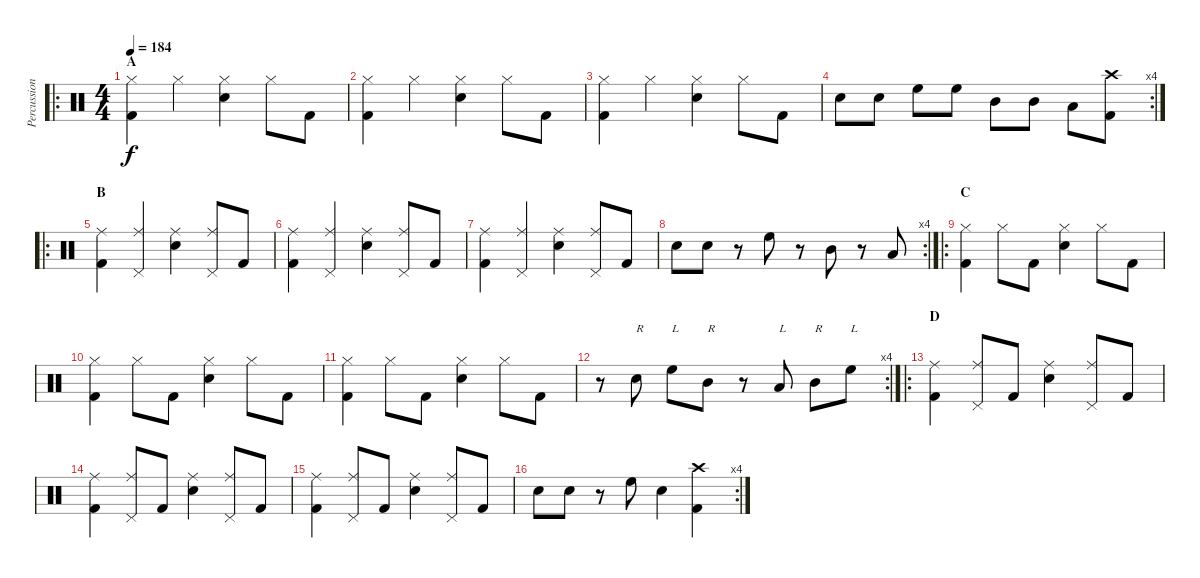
\track ("Percussioni" "Percussion") {instrument percussion}
\staff {score}
\articulation defaults
\ro
\ts (4 4)
\section ("" "A")
\tempo 184
\clef neutral
\ks c
("Hi-Hat (closed)" "Kick (hit) 2").4{dy f} "Hi-Hat (closed)".4 ("Hi-Hat (closed)" "Snare (hit) 2").4 "Hi-Hat (closed)".8 "Kick (hit) 2".8 |
("Hi-Hat (closed)" "Kick (hit) 2").4 "Hi-Hat (closed)".4 ("Hi-Hat (closed)" "Snare (hit) 2").4 "Hi-Hat (closed)".8 "Kick (hit) 2".8 |
("Hi-Hat (closed)" "Kick (hit) 2").4 "Hi-Hat (closed)".4 ("Hi-Hat (closed)" "Snare (hit) 2").4 "Hi-Hat (closed)".8 "Kick (hit) 2".8 |
\rc 4 "Snare (hit) 2".8 "Snare (hit) 2".8 "High Floor Tom (hit)".8 "High Floor Tom (hit)".8 "Mid Tom (hit)".8 "Mid Tom (hit)".8 "Low Floor Tom (hit)".8
("Kick (hit) 2" "Crash high (hit)").8 |
\ro
\section ("" "B")
("Ride (middle)" "Kick (hit) 2").4 ("Ride (middle)" "Pedal Hi-Hat (hit)").4 ("Ride (middle)" "Snare (hit) 2").4 ("Ride (middle)" "Pedal Hi-Hat (hit)").8 "Kick (hit) 2".8 |
("Ride (middle)" "Kick (hit) 2").4 ("Ride (middle)" "Pedal Hi-Hat (hit)").4 ("Ride (middle)" "Snare (hit) 2").4 ("Ride (middle)" "Pedal Hi-Hat (hit)").8 "Kick (hit) 2".8 |
("Ride (middle)" "Kick (hit) 2").4 ("Ride (middle)" "Pedal Hi-Hat (hit)").4 ("Ride (middle)" "Snare (hit) 2").4 ("Ride (middle)" "Pedal Hi-Hat (hit)").8 "Kick (hit) 2".8 |
\rc 4 "Snare (hit) 2".8 "Snare (hit) 2".8
r.8 "High Floor Tom (hit)".8 r.8 "Mid Tom (hit)".8 r.8 "Low Floor Tom (hit)".8 |
\ro
\section ("" "C")
("Hi-Hat (closed)" "Kick (hit) 2").4 "Hi-Hat (closed)".8 "Kick (hit) 2".8 ("Hi-Hat (closed)" "Snare (hit) 2").4 "Hi-Hat (closed)".8 "Kick (hit) 2".8 |
("Hi-Hat (closed)" "Kick (hit) 2").4 "Hi-Hat (closed)".8 "Kick (hit) 2".8 ("Hi-Hat (closed)" "Snare (hit) 2").4 "Hi-Hat (closed)".8 "Kick (hit) 2".8 |
("Hi-Hat (closed)" "Kick (hit) 2").4 "Hi-Hat (closed)".8 "Kick (hit) 2".8 ("Hi-Hat (closed)" "Snare (hit) 2").4 "Hi-Hat (closed)".8 "Kick (hit) 2".8 |
\rc 4
r.8 "Snare (hit) 2".8{txt "R"} "High Floor Tom (hit)".8{txt "L"} "Mid Tom (hit)".8{txt "R"} r.8 "Low Floor Tom (hit)".8{txt "L"} "Mid Tom (hit)".8{txt "R"} "High Floor Tom (hit)".8{txt "L"} |
\ro
\section ("" "D")
("Ride (middle)" "Kick (hit) 2").4 ("Ride (middle)" "Pedal Hi-Hat (hit)").8 "Kick (hit) 2".8 ("Ride (middle)" "Snare (hit) 2").4 ("Ride (middle)" "Pedal Hi-Hat (hit)").8 "Kick (hit) 2".8 |
("Ride (middle)" "Kick (hit) 2").4 ("Ride (middle)" "Pedal Hi-Hat (hit)").8 "Kick (hit) 2".8 ("Ride (middle)" "Snare (hit) 2").4 ("Ride (middle)" "Pedal Hi-Hat (hit)").8 "Kick (hit) 2".8 |
("Ride (middle)" "Kick (hit) 2").4 ("Ride (middle)" "Pedal Hi-Hat (hit)").8 "Kick (hit) 2".8 ("Ride (middle)" "Snare (hit) 2").4 ("Ride (middle)" "Pedal Hi-Hat (hit)").8 "Kick (hit) 2".8 |
\rc 4 "Snare (hit) 2".8 "Snare (hit) 2".8
r.8 "High Floor Tom (hit)".8 "Snare (hit) 2".4 ("Kick (hit) 2" "Crash high (hit)").4
